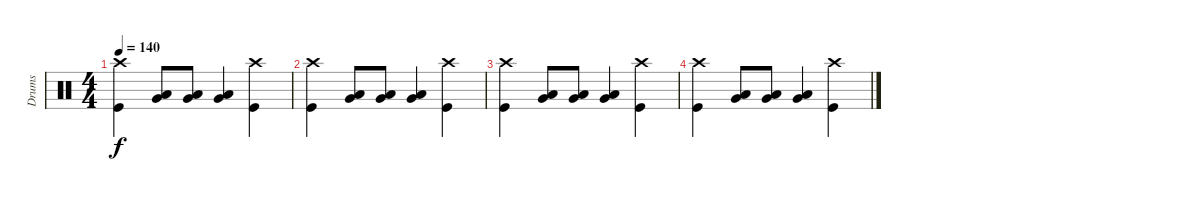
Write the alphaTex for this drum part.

\track ("Drums" "Drums") {instrument percussion}
\staff {score}
\articulation defaults
\ts (4 4)
\tempo 140
\clef neutral
\ks c
("Crash high (hit)" "Kick (hit)").4{dy f} ("Low Floor Tom (hit)" "Very Low Tom (hit)").8 ("Low Floor Tom (hit)" "Very Low Tom (hit)").8 ("Low Floor Tom (hit)" "Very Low Tom (hit)").4 ("Crash high (hit)" "Kick (hit)").4 |
("Crash high (hit)" "Kick (hit)").4 ("Low Floor Tom (hit)" "Very Low Tom (hit)").8 ("Low Floor Tom (hit)" "Very Low Tom (hit)").8 ("Low Floor Tom (hit)" "Very Low Tom (hit)").4 ("Crash high (hit)" "Kick (hit)").4 |
("Crash high (hit)" "Kick (hit)").4 ("Low Floor Tom (hit)" "Very Low Tom (hit)").8 ("Low Floor Tom (hit)" "Very Low Tom (hit)").8 ("Low Floor Tom (hit)" "Very Low Tom (hit)").4 ("Crash high (hit)" "Kick (hit)").4 |
("Crash high (hit)" "Kick (hit)").4 ("Low Floor Tom (hit)" "Very Low Tom (hit)").8 ("Low Floor Tom (hit)" "Very Low Tom (hit)").8 ("Low Floor Tom (hit)" "Very Low Tom (hit)").4 ("Crash high (hit)" "Kick (hit)").4
